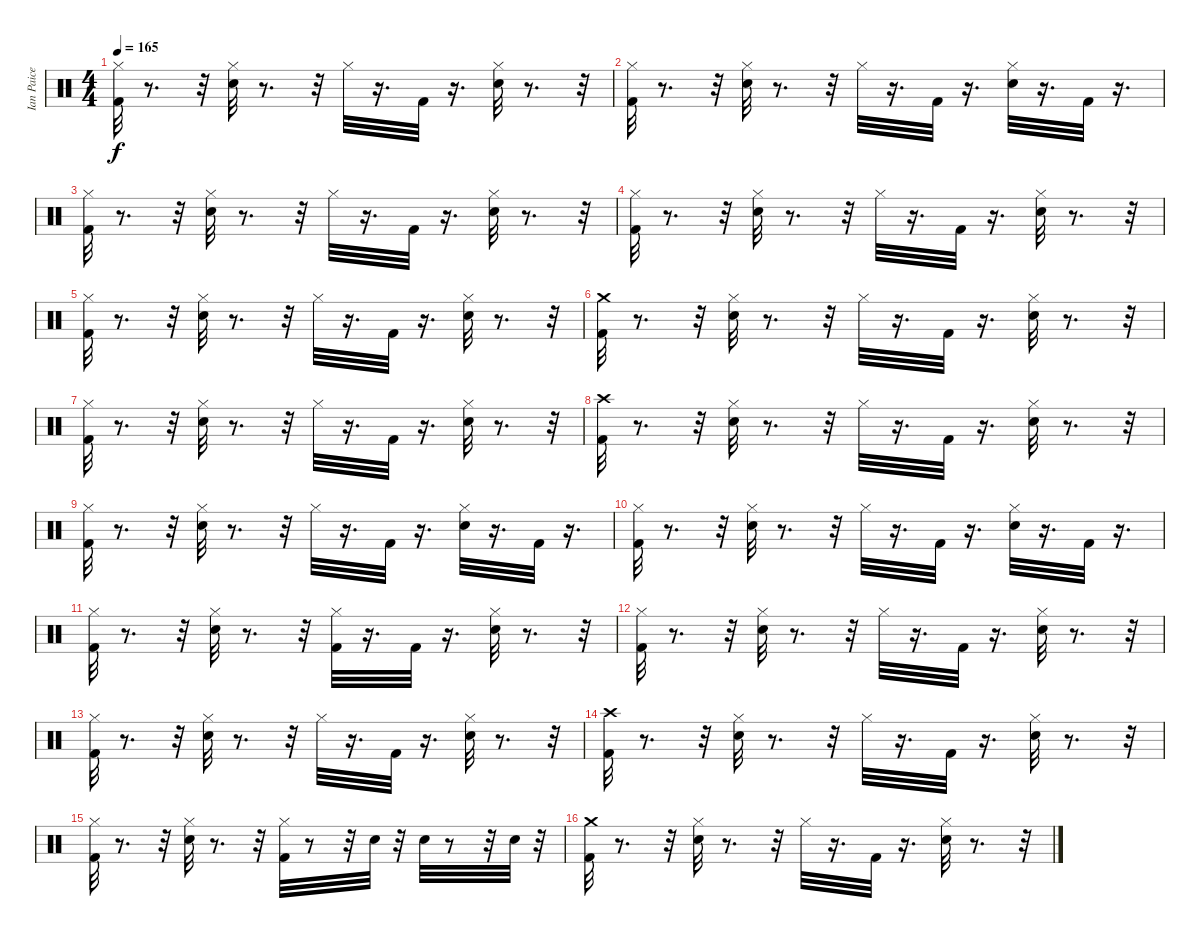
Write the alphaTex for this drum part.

\track ("Ian Paice" "Ian Paice") {instrument percussion}
\staff {score}
\articulation defaults
\ts (4 4)
\tempo 165
\clef neutral
\ks c
("Kick (hit) 2" "Hi-Hat (closed)").32{dy f} r.8{d} r.32 ("Snare (hit) 2" "Hi-Hat (closed)").32 r.8{d} r.32 "Hi-Hat (closed)".32 r.16{d} "Kick (hit) 2".32 r.16{d} ("Snare (hit) 2" "Hi-Hat (closed)").32 r.8{d} r.32 |
("Hi-Hat (closed)" "Kick (hit) 2").32 r.8{d} r.32 ("Hi-Hat (closed)" "Snare (hit) 2").32 r.8{d} r.32 "Hi-Hat (closed)".32 r.16{d} "Kick (hit) 2".32 r.16{d} ("Hi-Hat (closed)" "Snare (hit) 2").32 r.16{d} "Kick (hit) 2".32 r.16{d} |
("Hi-Hat (closed)" "Kick (hit) 2").32 r.8{d} r.32 ("Snare (hit) 2" "Hi-Hat (closed)").32 r.8{d} r.32 "Hi-Hat (closed)".32 r.16{d} "Kick (hit) 2".32 r.16{d} ("Snare (hit) 2" "Hi-Hat (closed)").32 r.8{d} r.32 |
("Hi-Hat (closed)" "Kick (hit) 2").32 r.8{d} r.32 ("Hi-Hat (closed)" "Snare (hit) 2").32 r.8{d} r.32 "Hi-Hat (closed)".32 r.16{d} "Kick (hit) 2".32 r.16{d} ("Hi-Hat (closed)" "Snare (hit) 2").32 r.8{d} r.32 |
("Hi-Hat (closed)" "Kick (hit) 2").32 r.8{d} r.32 ("Hi-Hat (closed)" "Snare (hit) 2").32 r.8{d} r.32 "Hi-Hat (closed)".32 r.16{d} "Kick (hit) 2".32 r.16{d} ("Hi-Hat (closed)" "Snare (hit) 2").32 r.8{d} r.32 |
("Crash medium (hit)" "Kick (hit) 2").32 r.8{d} r.32 ("Hi-Hat (closed)" "Snare (hit) 2").32 r.8{d} r.32 "Hi-Hat (closed)".32 r.16{d} "Kick (hit) 2".32 r.16{d} ("Hi-Hat (closed)" "Snare (hit) 2").32 r.8{d} r.32 |
("Kick (hit) 2" "Hi-Hat (closed)").32 r.8{d} r.32 ("Hi-Hat (closed)" "Snare (hit) 2").32 r.8{d} r.32 "Hi-Hat (closed)".32 r.16{d} "Kick (hit) 2".32 r.16{d} ("Hi-Hat (closed)" "Snare (hit) 2").32 r.8{d} r.32 |
("Crash high (hit)" "Kick (hit) 2").32 r.8{d} r.32 ("Hi-Hat (closed)" "Snare (hit) 2").32 r.8{d} r.32 "Hi-Hat (closed)".32 r.16{d} "Kick (hit) 2".32 r.16{d} ("Hi-Hat (closed)" "Snare (hit) 2").32 r.8{d} r.32 |
("Hi-Hat (closed)" "Kick (hit) 2").32 r.8{d} r.32 ("Hi-Hat (closed)" "Snare (hit) 2").32 r.8{d} r.32 "Hi-Hat (closed)".32 r.16{d} "Kick (hit) 2".32 r.16{d} ("Hi-Hat (closed)" "Snare (hit) 2").32 r.16{d} "Kick (hit) 2".32 r.16{d} |
("Hi-Hat (closed)" "Kick (hit) 2").32 r.8{d} r.32 ("Hi-Hat (closed)" "Snare (hit) 2").32 r.8{d} r.32 "Hi-Hat (closed)".32 r.16{d} "Kick (hit) 2".32 r.16{d} ("Hi-Hat (closed)" "Snare (hit) 2").32 r.16{d} "Kick (hit) 2".32 r.16{d} |
("Hi-Hat (closed)" "Kick (hit) 2").32 r.8{d} r.32 ("Hi-Hat (closed)" "Snare (hit) 2").32 r.8{d} r.32 ("Hi-Hat (closed)" "Kick (hit) 2").32 r.16{d} "Kick (hit) 2".32 r.16{d} ("Hi-Hat (closed)" "Snare (hit) 2").32 r.8{d} r.32 |
("Hi-Hat (closed)" "Kick (hit) 2").32 r.8{d} r.32 ("Hi-Hat (closed)" "Snare (hit) 2").32 r.8{d} r.32 "Hi-Hat (closed)".32 r.16{d} "Kick (hit) 2".32 r.16{d} ("Hi-Hat (closed)" "Snare (hit) 2").32 r.8{d} r.32 |
("Hi-Hat (closed)" "Kick (hit) 2").32 r.8{d} r.32 ("Hi-Hat (closed)" "Snare (hit) 2").32 r.8{d} r.32 "Hi-Hat (closed)".32 r.16{d} "Kick (hit) 2".32 r.16{d} ("Hi-Hat (closed)" "Snare (hit) 2").32 r.8{d} r.32 |
("Crash high (hit)" "Kick (hit) 2").32 r.8{d} r.32 ("Hi-Hat (closed)" "Snare (hit) 2").32 r.8{d} r.32 "Hi-Hat (closed)".32 r.16{d} "Kick (hit) 2".32 r.16{d} ("Hi-Hat (closed)" "Snare (hit) 2").32 r.8{d} r.32 |
("Hi-Hat (closed)" "Kick (hit) 2").32 r.8{d} r.32 ("Snare (hit) 2" "Hi-Hat (closed)").32 r.8{d} r.32 ("Hi-Hat (closed)" "Kick (hit) 2").32 r.8 r.32 "Snare (hit) 2".32 r.32 "Snare (hit) 2".32 r.8 r.32 "Snare (hit) 2".32 r.32 |
("Crash medium (hit)" "Kick (hit) 2").32 r.8{d} r.32 ("Hi-Hat (closed)" "Snare (hit) 2").32 r.8{d} r.32 "Hi-Hat (closed)".32 r.16{d} "Kick (hit) 2".32 r.16{d} ("Hi-Hat (closed)" "Snare (hit) 2").32 r.8{d} r.32
